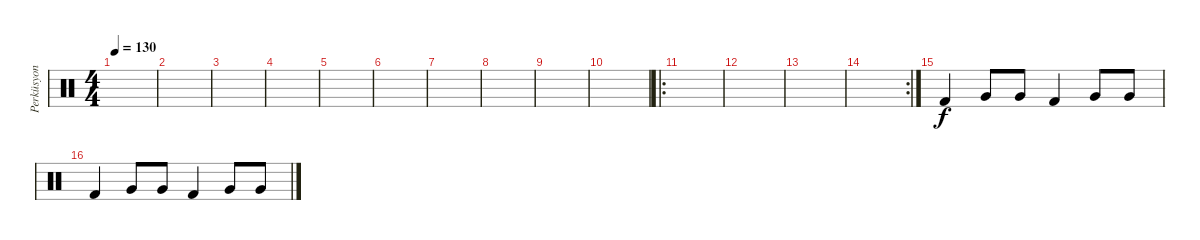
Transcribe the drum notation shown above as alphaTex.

\track ("Perküsyon" "Perküsyon") {instrument percussion}
\staff {score}
\articulation defaults
\ts (4 4)
\tempo 130
\clef neutral
\ks c
|
|
|
|
|
|
|
|
|
|
\ro
|
|
|
\rc 2
|
"Kick (hit) 2".4 "Very Low Tom (hit)".8 "Very Low Tom (hit)".8 "Kick (hit) 2".4 "Very Low Tom (hit)".8 "Very Low Tom (hit)".8 |
"Kick (hit) 2".4 "Very Low Tom (hit)".8 "Very Low Tom (hit)".8 "Kick (hit) 2".4 "Very Low Tom (hit)".8 "Very Low Tom (hit)".8
